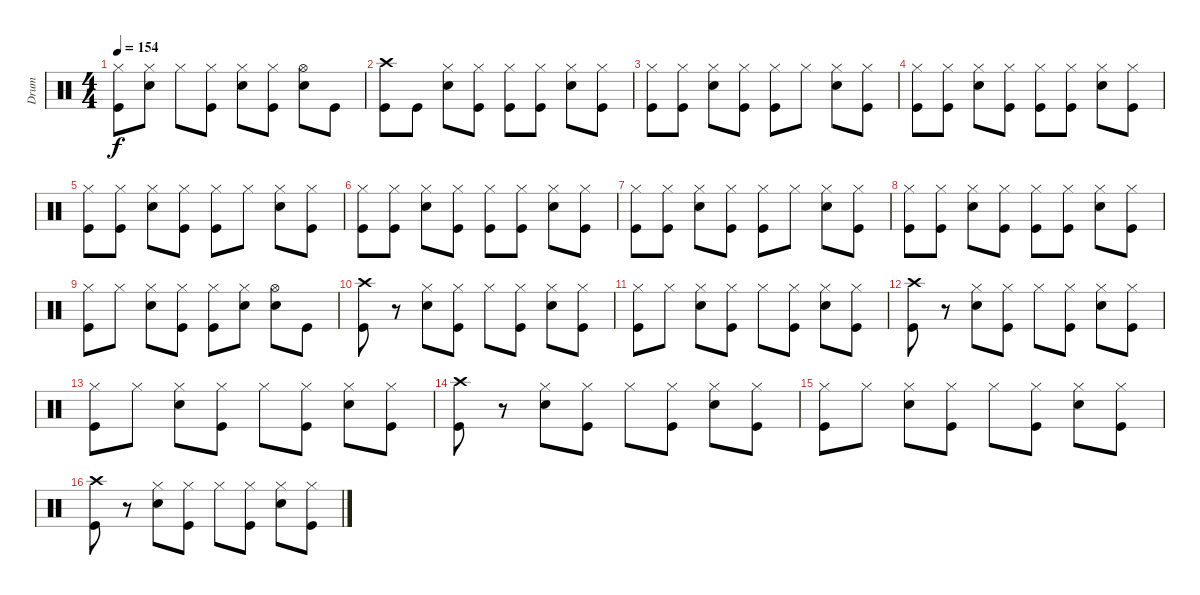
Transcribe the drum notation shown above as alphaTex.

\track ("Drum" "Drum") {instrument percussion}
\staff {score}
\articulation defaults
\ts (4 4)
\tempo 154
\clef neutral
\ks c
("Kick (hit)" "Hi-Hat (closed)").8{dy f} ("Snare (hit) 2" "Hi-Hat (closed)").8 "Hi-Hat (closed)".8 ("Kick (hit)" "Hi-Hat (closed)").8 ("Snare (hit) 2" "Hi-Hat (closed)").8 ("Kick (hit)" "Hi-Hat (closed)").8 ("Snare (hit) 2" "Hi-Hat (open)").8 "Kick (hit)".8 |
("Kick (hit)" "Crash high (hit)").8 "Kick (hit)".8 ("Snare (hit) 2" "Hi-Hat (closed)").8 ("Kick (hit)" "Hi-Hat (closed)").8 ("Kick (hit)" "Hi-Hat (closed)").8 ("Kick (hit)" "Hi-Hat (closed)").8 ("Snare (hit) 2" "Hi-Hat (closed)").8 ("Kick (hit)" "Hi-Hat (closed)").8 |
("Kick (hit)" "Hi-Hat (closed)").8 ("Kick (hit)" "Hi-Hat (closed)").8 ("Snare (hit) 2" "Hi-Hat (closed)").8 ("Kick (hit)" "Hi-Hat (closed)").8 ("Kick (hit)" "Hi-Hat (closed)").8 "Hi-Hat (closed)".8 ("Snare (hit) 2" "Hi-Hat (closed)").8 ("Kick (hit)" "Hi-Hat (closed)").8 |
("Kick (hit)" "Hi-Hat (closed)").8 ("Kick (hit)" "Hi-Hat (closed)").8 ("Snare (hit) 2" "Hi-Hat (closed)").8 ("Kick (hit)" "Hi-Hat (closed)").8 ("Kick (hit)" "Hi-Hat (closed)").8 ("Kick (hit)" "Hi-Hat (closed)").8 ("Snare (hit) 2" "Hi-Hat (closed)").8 ("Kick (hit)" "Hi-Hat (closed)").8 |
("Kick (hit)" "Hi-Hat (closed)").8 ("Kick (hit)" "Hi-Hat (closed)").8 ("Snare (hit) 2" "Hi-Hat (closed)").8 ("Kick (hit)" "Hi-Hat (closed)").8 ("Kick (hit)" "Hi-Hat (closed)").8 "Hi-Hat (closed)".8 ("Snare (hit) 2" "Hi-Hat (closed)").8 ("Kick (hit)" "Hi-Hat (closed)").8 |
("Kick (hit)" "Hi-Hat (closed)").8 ("Kick (hit)" "Hi-Hat (closed)").8 ("Snare (hit) 2" "Hi-Hat (closed)").8 ("Kick (hit)" "Hi-Hat (closed)").8 ("Kick (hit)" "Hi-Hat (closed)").8 ("Kick (hit)" "Hi-Hat (closed)").8 ("Snare (hit) 2" "Hi-Hat (closed)").8 ("Kick (hit)" "Hi-Hat (closed)").8 |
("Kick (hit)" "Hi-Hat (closed)").8 ("Kick (hit)" "Hi-Hat (closed)").8 ("Snare (hit) 2" "Hi-Hat (closed)").8 ("Kick (hit)" "Hi-Hat (closed)").8 ("Kick (hit)" "Hi-Hat (closed)").8 "Hi-Hat (closed)".8 ("Snare (hit) 2" "Hi-Hat (closed)").8 ("Kick (hit)" "Hi-Hat (closed)").8 |
("Kick (hit)" "Hi-Hat (closed)").8 ("Kick (hit)" "Hi-Hat (closed)").8 ("Snare (hit) 2" "Hi-Hat (closed)").8 ("Kick (hit)" "Hi-Hat (closed)").8 ("Kick (hit)" "Hi-Hat (closed)").8 ("Kick (hit)" "Hi-Hat (closed)").8 ("Snare (hit) 2" "Hi-Hat (closed)").8 ("Kick (hit)" "Hi-Hat (closed)").8 |
("Kick (hit)" "Hi-Hat (closed)").8 "Hi-Hat (closed)".8 ("Snare (hit) 2" "Hi-Hat (closed)").8 ("Kick (hit)" "Hi-Hat (closed)").8 ("Kick (hit)" "Hi-Hat (closed)").8 ("Snare (hit) 2" "Hi-Hat (closed)").8 ("Snare (hit) 2" "Hi-Hat (open)").8 "Kick (hit)".8 |
("Kick (hit)" "Crash high (hit)").8 r.8 ("Snare (hit) 2" "Hi-Hat (closed)").8 ("Kick (hit)" "Hi-Hat (closed)").8 "Hi-Hat (closed)".8 ("Kick (hit)" "Hi-Hat (closed)").8 ("Snare (hit) 2" "Hi-Hat (closed)").8 ("Kick (hit)" "Hi-Hat (closed)").8 |
("Kick (hit)" "Hi-Hat (closed)").8 "Hi-Hat (closed)".8 ("Snare (hit) 2" "Hi-Hat (closed)").8 ("Kick (hit)" "Hi-Hat (closed)").8 "Hi-Hat (closed)".8 ("Kick (hit)" "Hi-Hat (closed)").8 ("Snare (hit) 2" "Hi-Hat (closed)").8 ("Kick (hit)" "Hi-Hat (closed)").8 |
("Kick (hit)" "Crash high (hit)").8 r.8 ("Snare (hit) 2" "Hi-Hat (closed)").8 ("Kick (hit)" "Hi-Hat (closed)").8 "Hi-Hat (closed)".8 ("Kick (hit)" "Hi-Hat (closed)").8 ("Snare (hit) 2" "Hi-Hat (closed)").8 ("Kick (hit)" "Hi-Hat (closed)").8 |
("Kick (hit)" "Hi-Hat (closed)").8 "Hi-Hat (closed)".8 ("Snare (hit) 2" "Hi-Hat (closed)").8 ("Kick (hit)" "Hi-Hat (closed)").8 "Hi-Hat (closed)".8 ("Kick (hit)" "Hi-Hat (closed)").8 ("Snare (hit) 2" "Hi-Hat (closed)").8 ("Kick (hit)" "Hi-Hat (closed)").8 |
("Kick (hit)" "Crash high (hit)").8 r.8 ("Snare (hit) 2" "Hi-Hat (closed)").8 ("Kick (hit)" "Hi-Hat (closed)").8 "Hi-Hat (closed)".8 ("Kick (hit)" "Hi-Hat (closed)").8 ("Snare (hit) 2" "Hi-Hat (closed)").8 ("Kick (hit)" "Hi-Hat (closed)").8 |
("Kick (hit)" "Hi-Hat (closed)").8 "Hi-Hat (closed)".8 ("Snare (hit) 2" "Hi-Hat (closed)").8 ("Kick (hit)" "Hi-Hat (closed)").8 "Hi-Hat (closed)".8 ("Kick (hit)" "Hi-Hat (closed)").8 ("Snare (hit) 2" "Hi-Hat (closed)").8 ("Kick (hit)" "Hi-Hat (closed)").8 |
("Kick (hit)" "Crash high (hit)").8 r.8 ("Snare (hit) 2" "Hi-Hat (closed)").8 ("Kick (hit)" "Hi-Hat (closed)").8 "Hi-Hat (closed)".8 ("Kick (hit)" "Hi-Hat (closed)").8 ("Snare (hit) 2" "Hi-Hat (closed)").8 ("Kick (hit)" "Hi-Hat (closed)").8
